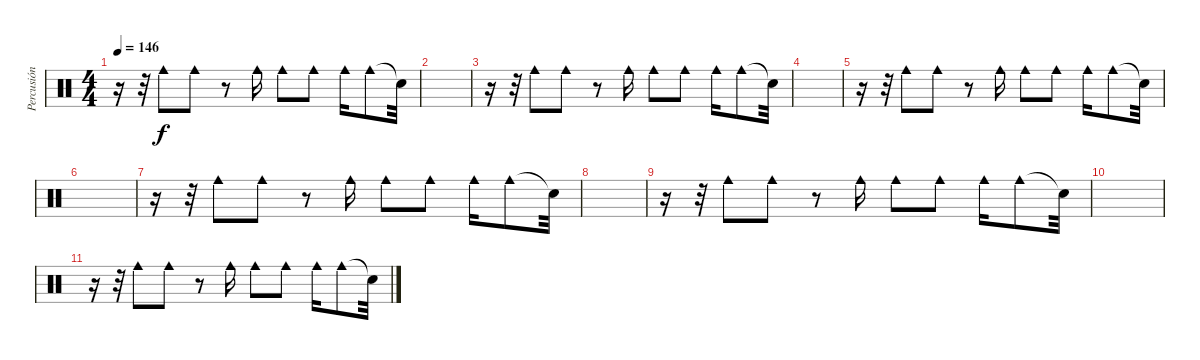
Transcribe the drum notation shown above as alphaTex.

\track ("Percusión" "Percusión") {instrument percussion}
\staff {score}
\articulation defaults
\ts (4 4)
\tempo 146
\clef neutral
\ks c
r.16{dy f} r.32 "Cowbell medium (hit)".8 "Cowbell medium (hit)".8 r.8 "Cowbell medium (hit)".16 "Cowbell medium (hit)".8 "Cowbell medium (hit)".8 "Cowbell medium (hit)".16 "Cowbell medium (hit)".8 "Snare (hit)"{t}.32 |
|
r.16 r.32 "Cowbell medium (hit)".8 "Cowbell medium (hit)".8 r.8 "Cowbell medium (hit)".16 "Cowbell medium (hit)".8 "Cowbell medium (hit)".8 "Cowbell medium (hit)".16 "Cowbell medium (hit)".8 "Snare (hit)"{t}.32 |
|
r.16 r.32 "Cowbell medium (hit)".8 "Cowbell medium (hit)".8 r.8 "Cowbell medium (hit)".16 "Cowbell medium (hit)".8 "Cowbell medium (hit)".8 "Cowbell medium (hit)".16 "Cowbell medium (hit)".8 "Snare (hit)"{t}.32 |
|
r.16 r.32 "Cowbell medium (hit)".8 "Cowbell medium (hit)".8 r.8 "Cowbell medium (hit)".16 "Cowbell medium (hit)".8 "Cowbell medium (hit)".8 "Cowbell medium (hit)".16 "Cowbell medium (hit)".8 "Snare (hit)"{t}.32 |
|
r.16 r.32 "Cowbell medium (hit)".8 "Cowbell medium (hit)".8 r.8 "Cowbell medium (hit)".16 "Cowbell medium (hit)".8 "Cowbell medium (hit)".8 "Cowbell medium (hit)".16 "Cowbell medium (hit)".8 "Snare (hit)"{t}.32 |
|
r.16 r.32 "Cowbell medium (hit)".8 "Cowbell medium (hit)".8 r.8 "Cowbell medium (hit)".16 "Cowbell medium (hit)".8 "Cowbell medium (hit)".8 "Cowbell medium (hit)".16 "Cowbell medium (hit)".8 "Snare (hit)"{t}.32
